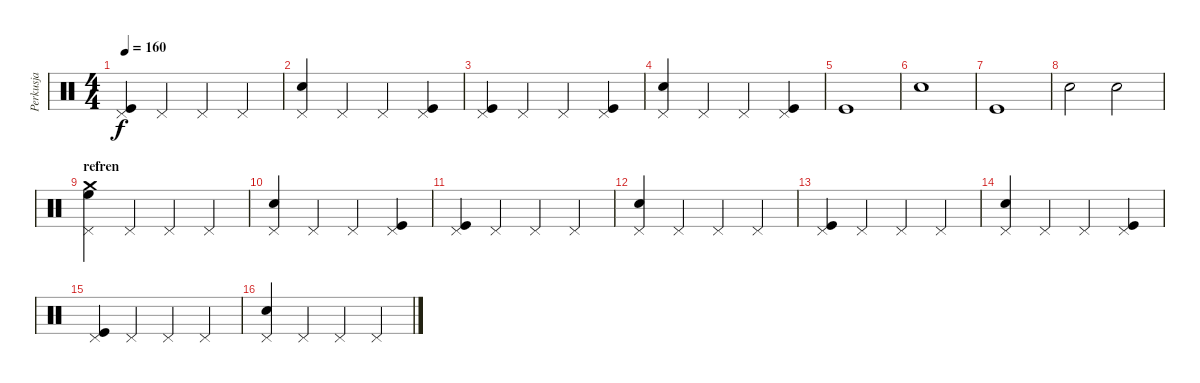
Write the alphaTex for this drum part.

\track ("Perkusja" "Perkusja") {instrument percussion}
\staff {score}
\articulation defaults
\ts (4 4)
\tempo 160
\clef neutral
\ks c
("Kick (hit)" "Pedal Hi-Hat (hit)").4{dy f} "Pedal Hi-Hat (hit)".4 "Pedal Hi-Hat (hit)".4 "Pedal Hi-Hat (hit)".4 |
("Snare (hit) 2" "Pedal Hi-Hat (hit)").4 "Pedal Hi-Hat (hit)".4 "Pedal Hi-Hat (hit)".4 ("Kick (hit)" "Pedal Hi-Hat (hit)").4 |
("Kick (hit)" "Pedal Hi-Hat (hit)").4 "Pedal Hi-Hat (hit)".4 "Pedal Hi-Hat (hit)".4 ("Kick (hit)" "Pedal Hi-Hat (hit)").4 |
("Snare (hit) 2" "Pedal Hi-Hat (hit)").4 "Pedal Hi-Hat (hit)".4 "Pedal Hi-Hat (hit)".4 ("Kick (hit)" "Pedal Hi-Hat (hit)").4 |
"Kick (hit)".1 |
"Snare (hit) 2".1 |
"Kick (hit)".1 |
"Snare (hit) 2".2 "Electric Snare (hit)".2 |
\section ("" "refren")
("High Floor Tom (hit)" "Crash medium (hit)" "Pedal Hi-Hat (hit)").4 "Pedal Hi-Hat (hit)".4 "Pedal Hi-Hat (hit)".4 "Pedal Hi-Hat (hit)".4 |
("Snare (hit) 2" "Pedal Hi-Hat (hit)").4 "Pedal Hi-Hat (hit)".4 "Pedal Hi-Hat (hit)".4 ("Kick (hit)" "Pedal Hi-Hat (hit)").4 |
("Kick (hit)" "Pedal Hi-Hat (hit)").4 "Pedal Hi-Hat (hit)".4 "Pedal Hi-Hat (hit)".4 "Pedal Hi-Hat (hit)".4 |
("Snare (hit) 2" "Pedal Hi-Hat (hit)").4 "Pedal Hi-Hat (hit)".4 "Pedal Hi-Hat (hit)".4 "Pedal Hi-Hat (hit)".4 |
("Kick (hit)" "Pedal Hi-Hat (hit)").4 "Pedal Hi-Hat (hit)".4 "Pedal Hi-Hat (hit)".4 "Pedal Hi-Hat (hit)".4 |
("Snare (hit) 2" "Pedal Hi-Hat (hit)").4 "Pedal Hi-Hat (hit)".4 "Pedal Hi-Hat (hit)".4 ("Kick (hit)" "Pedal Hi-Hat (hit)").4 |
("Kick (hit)" "Pedal Hi-Hat (hit)").4 "Pedal Hi-Hat (hit)".4 "Pedal Hi-Hat (hit)".4 "Pedal Hi-Hat (hit)".4 |
("Snare (hit) 2" "Pedal Hi-Hat (hit)").4 "Pedal Hi-Hat (hit)".4 "Pedal Hi-Hat (hit)".4 "Pedal Hi-Hat (hit)".4
